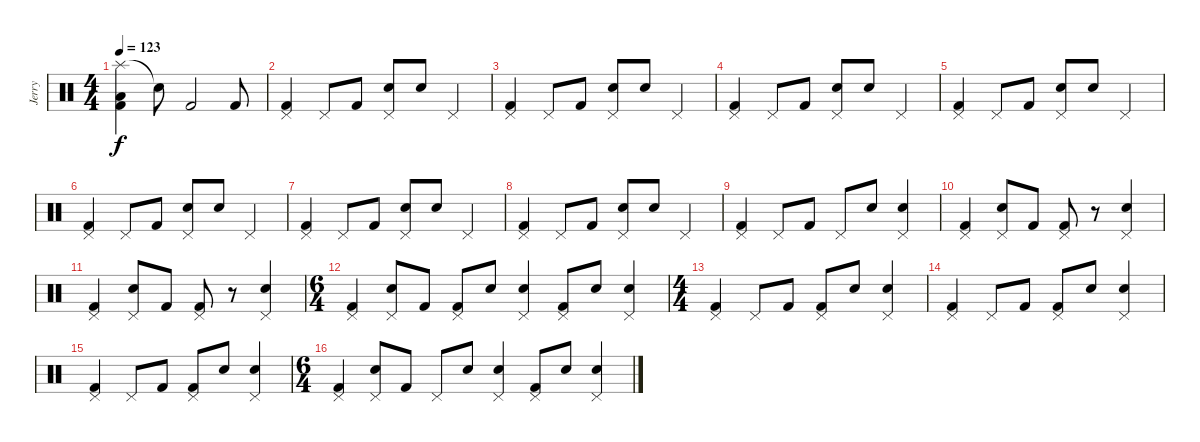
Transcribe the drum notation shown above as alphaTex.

\track ("Jerry" "Jerry") {instrument percussion}
\staff {score}
\articulation defaults
\ts (4 4)
\tempo 123
\clef neutral
\ks c
("Splash (hit)" "Low Floor Tom (hit)" "Kick (hit) 2").4{dy f} "Snare (hit)"{t}.8 "Kick (hit) 2".2 "Kick (hit) 2".8 |
("Pedal Hi-Hat (hit)" "Kick (hit) 2").4 "Pedal Hi-Hat (hit)".8 "Kick (hit) 2".8 ("Pedal Hi-Hat (hit)" "Snare (hit) 2").8 "Snare (hit) 2".8 "Pedal Hi-Hat (hit)".4 |
("Pedal Hi-Hat (hit)" "Kick (hit) 2").4 "Pedal Hi-Hat (hit)".8 "Kick (hit) 2".8 ("Pedal Hi-Hat (hit)" "Snare (hit) 2").8 "Snare (hit) 2".8 "Pedal Hi-Hat (hit)".4 |
("Pedal Hi-Hat (hit)" "Kick (hit) 2").4 "Pedal Hi-Hat (hit)".8 "Kick (hit) 2".8 ("Pedal Hi-Hat (hit)" "Snare (hit) 2").8 "Snare (hit) 2".8 "Pedal Hi-Hat (hit)".4 |
("Pedal Hi-Hat (hit)" "Kick (hit) 2").4 "Pedal Hi-Hat (hit)".8 "Kick (hit) 2".8 ("Pedal Hi-Hat (hit)" "Snare (hit) 2").8 "Snare (hit) 2".8 "Pedal Hi-Hat (hit)".4 |
("Pedal Hi-Hat (hit)" "Kick (hit) 2").4 "Pedal Hi-Hat (hit)".8 "Kick (hit) 2".8 ("Pedal Hi-Hat (hit)" "Snare (hit) 2").8 "Snare (hit) 2".8 "Pedal Hi-Hat (hit)".4 |
("Pedal Hi-Hat (hit)" "Kick (hit) 2").4 "Pedal Hi-Hat (hit)".8 "Kick (hit) 2".8 ("Pedal Hi-Hat (hit)" "Snare (hit) 2").8 "Snare (hit) 2".8 "Pedal Hi-Hat (hit)".4 |
("Pedal Hi-Hat (hit)" "Kick (hit) 2").4 "Pedal Hi-Hat (hit)".8 "Kick (hit) 2".8 ("Pedal Hi-Hat (hit)" "Snare (hit) 2").8 "Snare (hit) 2".8 "Pedal Hi-Hat (hit)".4 |
("Pedal Hi-Hat (hit)" "Kick (hit) 2").4 "Pedal Hi-Hat (hit)".8 "Kick (hit) 2".8 "Pedal Hi-Hat (hit)".8 "Snare (hit) 2".8 ("Pedal Hi-Hat (hit)" "Snare (hit) 2").4 |
("Pedal Hi-Hat (hit)" "Kick (hit) 2").4 ("Pedal Hi-Hat (hit)" "Snare (hit) 2").8 "Kick (hit) 2".8 ("Pedal Hi-Hat (hit)" "Kick (hit) 2").8 r.8 ("Pedal Hi-Hat (hit)" "Snare (hit) 2").4 |
("Pedal Hi-Hat (hit)" "Kick (hit) 2").4 ("Pedal Hi-Hat (hit)" "Snare (hit) 2").8 "Kick (hit) 2".8 ("Pedal Hi-Hat (hit)" "Kick (hit) 2").8 r.8 ("Pedal Hi-Hat (hit)" "Snare (hit) 2").4 |
\ts (6 4)
("Pedal Hi-Hat (hit)" "Kick (hit) 2").4 ("Pedal Hi-Hat (hit)" "Snare (hit) 2").8 "Kick (hit) 2".8 ("Pedal Hi-Hat (hit)" "Kick (hit) 2").8 "Snare (hit) 2".8 ("Pedal Hi-Hat (hit)" "Snare (hit) 2").4 ("Pedal Hi-Hat (hit)" "Kick (hit) 2").8 "Snare (hit) 2".8 ("Pedal Hi-Hat (hit)" "Snare (hit) 2").4 |
\ts (4 4)
("Pedal Hi-Hat (hit)" "Kick (hit) 2").4 "Pedal Hi-Hat (hit)".8 "Kick (hit) 2".8 ("Pedal Hi-Hat (hit)" "Kick (hit) 2").8 "Snare (hit) 2".8 ("Pedal Hi-Hat (hit)" "Snare (hit) 2").4 |
("Pedal Hi-Hat (hit)" "Kick (hit) 2").4 "Pedal Hi-Hat (hit)".8 "Kick (hit) 2".8 ("Pedal Hi-Hat (hit)" "Kick (hit) 2").8 "Snare (hit) 2".8 ("Pedal Hi-Hat (hit)" "Snare (hit) 2").4 |
("Pedal Hi-Hat (hit)" "Kick (hit) 2").4 "Pedal Hi-Hat (hit)".8 "Kick (hit) 2".8 ("Pedal Hi-Hat (hit)" "Kick (hit) 2").8 "Snare (hit) 2".8 ("Pedal Hi-Hat (hit)" "Snare (hit) 2").4 |
\ts (6 4)
("Pedal Hi-Hat (hit)" "Kick (hit) 2").4 ("Pedal Hi-Hat (hit)" "Snare (hit) 2").8 "Kick (hit) 2".8 "Pedal Hi-Hat (hit)".8 "Snare (hit) 2".8 ("Pedal Hi-Hat (hit)" "Snare (hit) 2").4 ("Pedal Hi-Hat (hit)" "Kick (hit) 2").8 "Snare (hit) 2".8 ("Pedal Hi-Hat (hit)" "Snare (hit) 2").4
